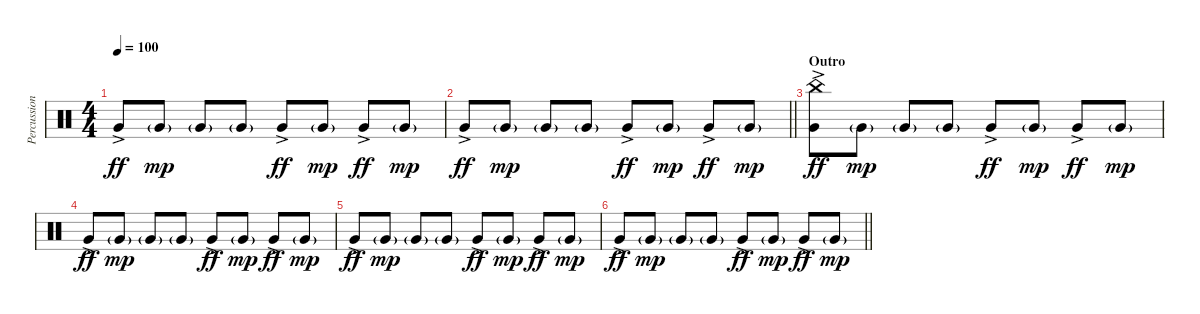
\track ("Percussion" "Percussion") {instrument percussion}
\staff {score}
\articulation defaults
\ts (4 4)
\tempo 100
\clef neutral
\ks c "Very Low Tom (hit)"{ac}.8{dy ff} "Very Low Tom (hit)"{g}.8{dy mp} "Very Low Tom (hit)"{g}.8 "Very Low Tom (hit)"{g}.8 "Very Low Tom (hit)"{ac}.8{dy ff} "Very Low Tom (hit)"{g}.8{dy mp} "Very Low Tom (hit)"{ac}.8{dy ff} "Very Low Tom (hit)"{g}.8{dy mp}
|
\barLineRight lightlight "Very Low Tom (hit)"{ac}.8{dy ff} "Very Low Tom (hit)"{g}.8{dy mp} "Very Low Tom (hit)"{g}.8 "Very Low Tom (hit)"{g}.8 "Very Low Tom (hit)"{ac}.8{dy ff} "Very Low Tom (hit)"{g}.8{dy mp} "Very Low Tom (hit)"{ac}.8{dy ff} "Very Low Tom (hit)"{g}.8{dy mp}
|
\section ("" "Outro")
("China (hit)" "Very Low Tom (hit)"{ac}).8{dy ff} "Very Low Tom (hit)"{g}.8{dy mp} "Very Low Tom (hit)"{g}.8 "Very Low Tom (hit)"{g}.8 "Very Low Tom (hit)"{ac}.8{dy ff} "Very Low Tom (hit)"{g}.8{dy mp} "Very Low Tom (hit)"{ac}.8{dy ff} "Very Low Tom (hit)"{g}.8{dy mp} |
"Very Low Tom (hit)"{ac}.8{dy ff} "Very Low Tom (hit)"{g}.8{dy mp} "Very Low Tom (hit)"{g}.8 "Very Low Tom (hit)"{g}.8 "Very Low Tom (hit)"{ac}.8{dy ff} "Very Low Tom (hit)"{g}.8{dy mp} "Very Low Tom (hit)"{ac}.8{dy ff} "Very Low Tom (hit)"{g}.8{dy mp} |
"Very Low Tom (hit)"{ac}.8{dy ff} "Very Low Tom (hit)"{g}.8{dy mp} "Very Low Tom (hit)"{g}.8 "Very Low Tom (hit)"{g}.8 "Very Low Tom (hit)"{ac}.8{dy ff} "Very Low Tom (hit)"{g}.8{dy mp} "Very Low Tom (hit)"{ac}.8{dy ff} "Very Low Tom (hit)"{g}.8{dy mp} |
\barLineRight lightlight "Very Low Tom (hit)"{ac}.8{dy ff} "Very Low Tom (hit)"{g}.8{dy mp} "Very Low Tom (hit)"{g}.8 "Very Low Tom (hit)"{g}.8 "Very Low Tom (hit)"{ac}.8{dy ff} "Very Low Tom (hit)"{g}.8{dy mp} "Very Low Tom (hit)"{ac}.8{dy ff} "Very Low Tom (hit)"{g}.8{dy mp}
